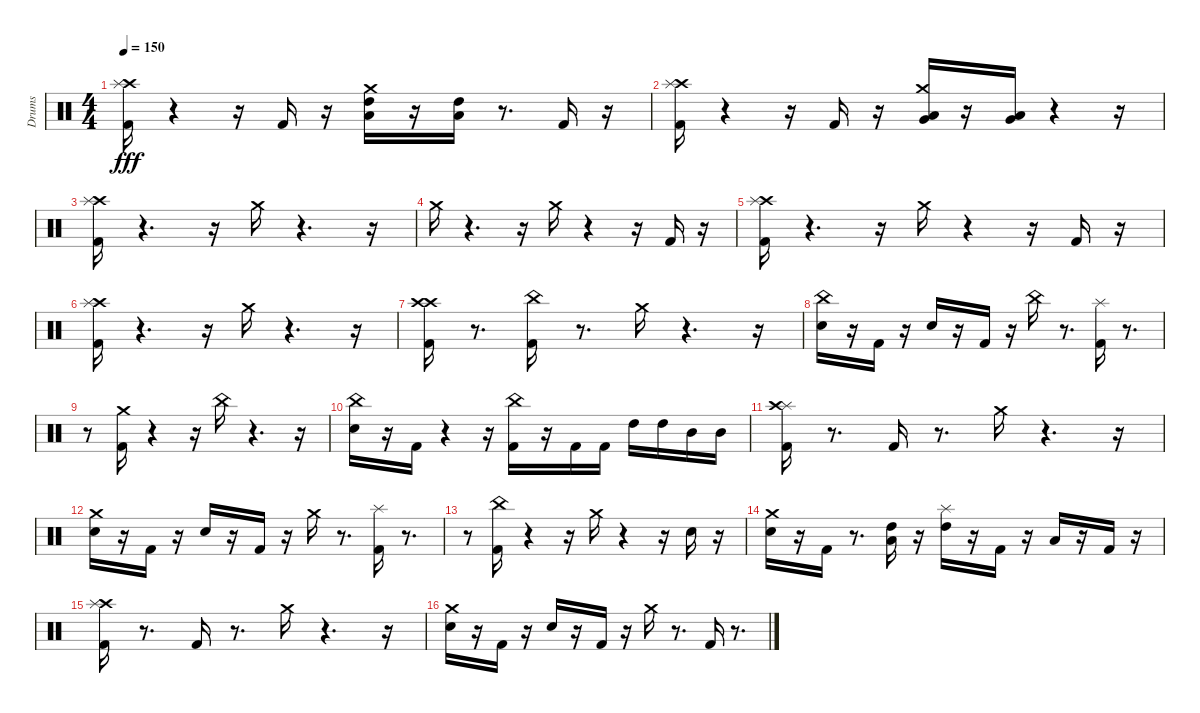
\track ("Drums" "Drums") {instrument percussion}
\staff {score}
\articulation defaults
\ts (4 4)
\tempo 150
\clef neutral
\ks c
("Crash high (hit)" "Kick (hit) 2" "Splash (hit)").16{dy fff} r.4 r.16 "Kick (hit) 2".16 r.16 ("Low Tom (hit)" "High Tom (hit)" "Crash medium (hit)").16 r.16 ("Low Tom (hit)" "High Tom (hit)").16 r.8{d} "Kick (hit) 2".16 r.16 |
("Crash high (hit)" "Kick (hit) 2" "Splash (hit)").16 r.4 r.16 "Kick (hit) 2".16 r.16 ("Very Low Tom (hit)" "Low Tom (hit)" "Crash medium (hit)").16 r.16 ("Very Low Tom (hit)" "Low Tom (hit)").16 r.4 r.16 |
("Crash high (hit)" "Kick (hit) 2" "Splash (hit)").16 r.4{d} r.16 "Crash medium (hit)".16 r.4{d} r.16 |
"Crash medium (hit)".16 r.4{d} r.16 "Crash medium (hit)".16 r.4 r.16 "Kick (hit) 2".16 r.16 |
("Crash high (hit)" "Kick (hit) 2" "Splash (hit)").16 r.4{d} r.16 "Crash medium (hit)".16 r.4 r.16 "Kick (hit) 2".16 r.16 |
("Crash high (hit)" "Kick (hit) 2" "Splash (hit)").16 r.4{d} r.16 "Crash medium (hit)".16 r.4{d} r.16 |
("Crash high (hit)" "Kick (hit) 2" "Crash high (hit)").16 r.8{d} ("Kick (hit) 2" "China (hit)").16 r.8{d} "Crash medium (hit)".16 r.4{d} r.16 |
("Snare (hit) 2" "China (hit)").16 r.16 "Kick (hit) 2".16 r.16 "Snare (hit) 2".16 r.16 "Kick (hit) 2".16 r.16 "China (hit)".16 r.8{d} ("Kick (hit) 2" "Splash (hit)").16 r.8{d} |
r.8 ("Kick (hit) 2" "Crash medium (hit)").16 r.4 r.16 "China (hit)".16 r.4{d} r.16 |
("China (hit)" "Snare (hit) 2").16 r.16 "Kick (hit) 2".16 r.4 r.16 ("Kick (hit) 2" "China (hit)").16 r.16 "Kick (hit) 2".16 "Kick (hit) 2".16 "High Tom (hit)".16 "High Tom (hit)".16 "Mid Tom (hit)".16 "Mid Tom (hit)".16 |
("Splash (hit)" "Kick (hit) 2" "Crash high (hit)").16 r.8{d} "Kick (hit) 2".16 r.8{d} "Crash medium (hit)".16 r.4{d} r.16 |
("Snare (hit) 2" "Crash medium (hit)").16 r.16 "Kick (hit) 2".16 r.16 "Snare (hit) 2".16 r.16 "Kick (hit) 2".16 r.16 "Crash medium (hit)".16 r.8{d} ("Kick (hit) 2" "Splash (hit)").16 r.8{d} |
r.8 ("Kick (hit) 2" "China (hit)").16 r.4 r.16 "Crash medium (hit)".16 r.4 r.16 "Snare (hit) 2".16 r.16 |
("Crash medium (hit)" "Snare (hit) 2").16 r.16 "Kick (hit) 2".16 r.8{d} ("Low Tom (hit)" "High Tom (hit)").16 r.16 ("High Tom (hit)" "Splash (hit)").16 r.16 "Kick (hit) 2".16 r.16 "Low Tom (hit)".16 r.16 "Kick (hit) 2".16 r.16 |
("Crash high (hit)" "Kick (hit) 2" "Splash (hit)").16 r.8{d} "Kick (hit) 2".16 r.8{d} "Crash medium (hit)".16 r.4{d} r.16 |
("Snare (hit) 2" "Crash medium (hit)").16 r.16 "Kick (hit) 2".16 r.16 "Snare (hit) 2".16 r.16 "Kick (hit) 2".16 r.16 "Crash medium (hit)".16 r.8{d} "Kick (hit) 2".16 r.8{d}
